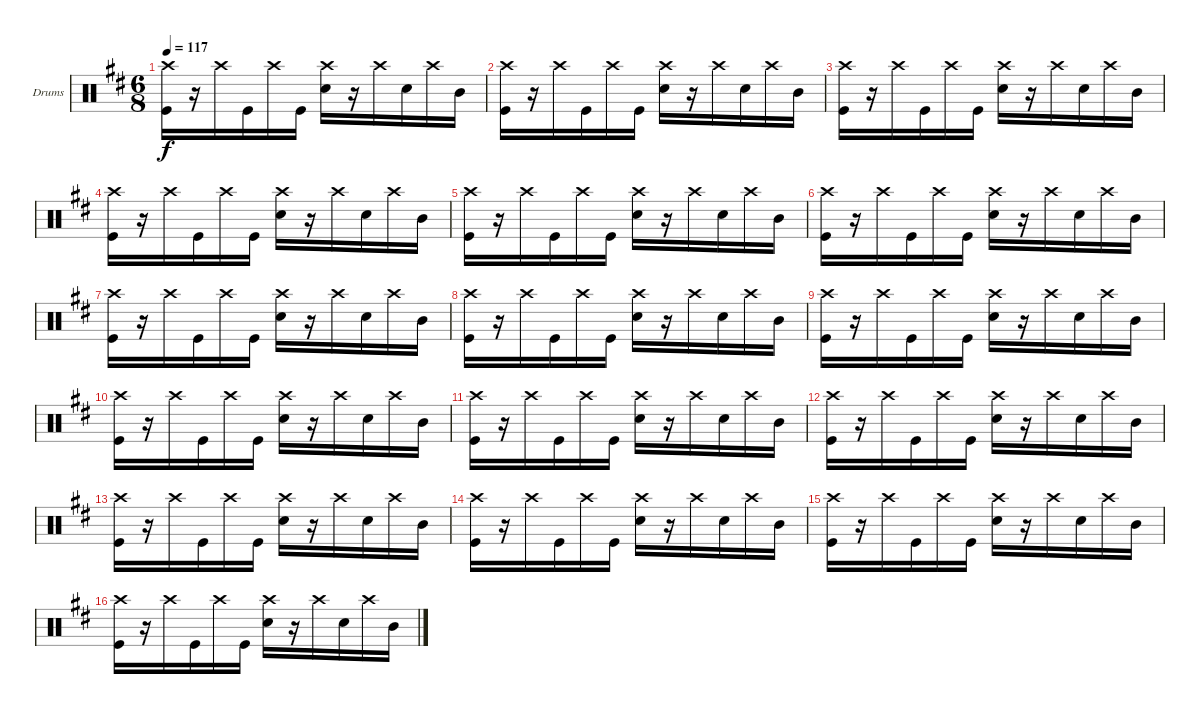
\bracketExtendMode groupsimilarinstruments
\firstSystemTrackNameOrientation horizontal
\otherSystemsTrackNameOrientation horizontal
\track ("Drumkit" "Drums") {instrument percussion}
\staff {score}
\articulation defaults
\ts (6 8)
\tempo 117
\clef neutral
\ks d
("Crash high (hit)" "Kick (hit)").16{dy f} r.16 "Crash high (hit)".16 "Kick (hit)".16 "Crash high (hit)".16 "Kick (hit)".16 ("Crash high (hit)" "Snare (hit) 2").16 r.16 "Crash high (hit)".16 "Snare (hit) 2".16 "Crash high (hit)".16 "Mid Tom (hit)".16 |
("Crash high (hit)" "Kick (hit)").16 r.16 "Crash high (hit)".16 "Kick (hit)".16 "Crash high (hit)".16 "Kick (hit)".16 ("Crash high (hit)" "Snare (hit) 2").16 r.16 "Crash high (hit)".16 "Snare (hit) 2".16 "Crash high (hit)".16 "Mid Tom (hit)".16 |
("Crash high (hit)" "Kick (hit)").16 r.16 "Crash high (hit)".16 "Kick (hit)".16 "Crash high (hit)".16 "Kick (hit)".16 ("Crash high (hit)" "Snare (hit) 2").16 r.16 "Crash high (hit)".16 "Snare (hit) 2".16 "Crash high (hit)".16 "Mid Tom (hit)".16 |
("Crash high (hit)" "Kick (hit)").16 r.16 "Crash high (hit)".16 "Kick (hit)".16 "Crash high (hit)".16 "Kick (hit)".16 ("Crash high (hit)" "Snare (hit) 2").16 r.16 "Crash high (hit)".16 "Snare (hit) 2".16 "Crash high (hit)".16 "Mid Tom (hit)".16 |
("Crash high (hit)" "Kick (hit)").16 r.16 "Crash high (hit)".16 "Kick (hit)".16 "Crash high (hit)".16 "Kick (hit)".16 ("Crash high (hit)" "Snare (hit) 2").16 r.16 "Crash high (hit)".16 "Snare (hit) 2".16 "Crash high (hit)".16 "Mid Tom (hit)".16 |
("Crash high (hit)" "Kick (hit)").16 r.16 "Crash high (hit)".16 "Kick (hit)".16 "Crash high (hit)".16 "Kick (hit)".16 ("Crash high (hit)" "Snare (hit) 2").16 r.16 "Crash high (hit)".16 "Snare (hit) 2".16 "Crash high (hit)".16 "Mid Tom (hit)".16 |
("Crash high (hit)" "Kick (hit)").16 r.16 "Crash high (hit)".16 "Kick (hit)".16 "Crash high (hit)".16 "Kick (hit)".16 ("Crash high (hit)" "Snare (hit) 2").16 r.16 "Crash high (hit)".16 "Snare (hit) 2".16 "Crash high (hit)".16 "Mid Tom (hit)".16 |
("Crash high (hit)" "Kick (hit)").16 r.16 "Crash high (hit)".16 "Kick (hit)".16 "Crash high (hit)".16 "Kick (hit)".16 ("Crash high (hit)" "Snare (hit) 2").16 r.16 "Crash high (hit)".16 "Snare (hit) 2".16 "Crash high (hit)".16 "Mid Tom (hit)".16 |
("Crash high (hit)" "Kick (hit)").16 r.16 "Crash high (hit)".16 "Kick (hit)".16 "Crash high (hit)".16 "Kick (hit)".16 ("Crash high (hit)" "Snare (hit) 2").16 r.16 "Crash high (hit)".16 "Snare (hit) 2".16 "Crash high (hit)".16 "Mid Tom (hit)".16 |
("Crash high (hit)" "Kick (hit)").16 r.16 "Crash high (hit)".16 "Kick (hit)".16 "Crash high (hit)".16 "Kick (hit)".16 ("Crash high (hit)" "Snare (hit) 2").16 r.16 "Crash high (hit)".16 "Snare (hit) 2".16 "Crash high (hit)".16 "Mid Tom (hit)".16 |
("Crash high (hit)" "Kick (hit)").16 r.16 "Crash high (hit)".16 "Kick (hit)".16 "Crash high (hit)".16 "Kick (hit)".16 ("Crash high (hit)" "Snare (hit) 2").16 r.16 "Crash high (hit)".16 "Snare (hit) 2".16 "Crash high (hit)".16 "Mid Tom (hit)".16 |
("Crash high (hit)" "Kick (hit)").16 r.16 "Crash high (hit)".16 "Kick (hit)".16 "Crash high (hit)".16 "Kick (hit)".16 ("Crash high (hit)" "Snare (hit) 2").16 r.16 "Crash high (hit)".16 "Snare (hit) 2".16 "Crash high (hit)".16 "Mid Tom (hit)".16 |
("Crash high (hit)" "Kick (hit)").16 r.16 "Crash high (hit)".16 "Kick (hit)".16 "Crash high (hit)".16 "Kick (hit)".16 ("Crash high (hit)" "Snare (hit) 2").16 r.16 "Crash high (hit)".16 "Snare (hit) 2".16 "Crash high (hit)".16 "Mid Tom (hit)".16 |
("Crash high (hit)" "Kick (hit)").16 r.16 "Crash high (hit)".16 "Kick (hit)".16 "Crash high (hit)".16 "Kick (hit)".16 ("Crash high (hit)" "Snare (hit) 2").16 r.16 "Crash high (hit)".16 "Snare (hit) 2".16 "Crash high (hit)".16 "Mid Tom (hit)".16 |
("Crash high (hit)" "Kick (hit)").16 r.16 "Crash high (hit)".16 "Kick (hit)".16 "Crash high (hit)".16 "Kick (hit)".16 ("Crash high (hit)" "Snare (hit) 2").16 r.16 "Crash high (hit)".16 "Snare (hit) 2".16 "Crash high (hit)".16 "Mid Tom (hit)".16 |
("Crash high (hit)" "Kick (hit)").16 r.16 "Crash high (hit)".16 "Kick (hit)".16 "Crash high (hit)".16 "Kick (hit)".16 ("Crash high (hit)" "Snare (hit) 2").16 r.16 "Crash high (hit)".16 "Snare (hit) 2".16 "Crash high (hit)".16 "Mid Tom (hit)".16
